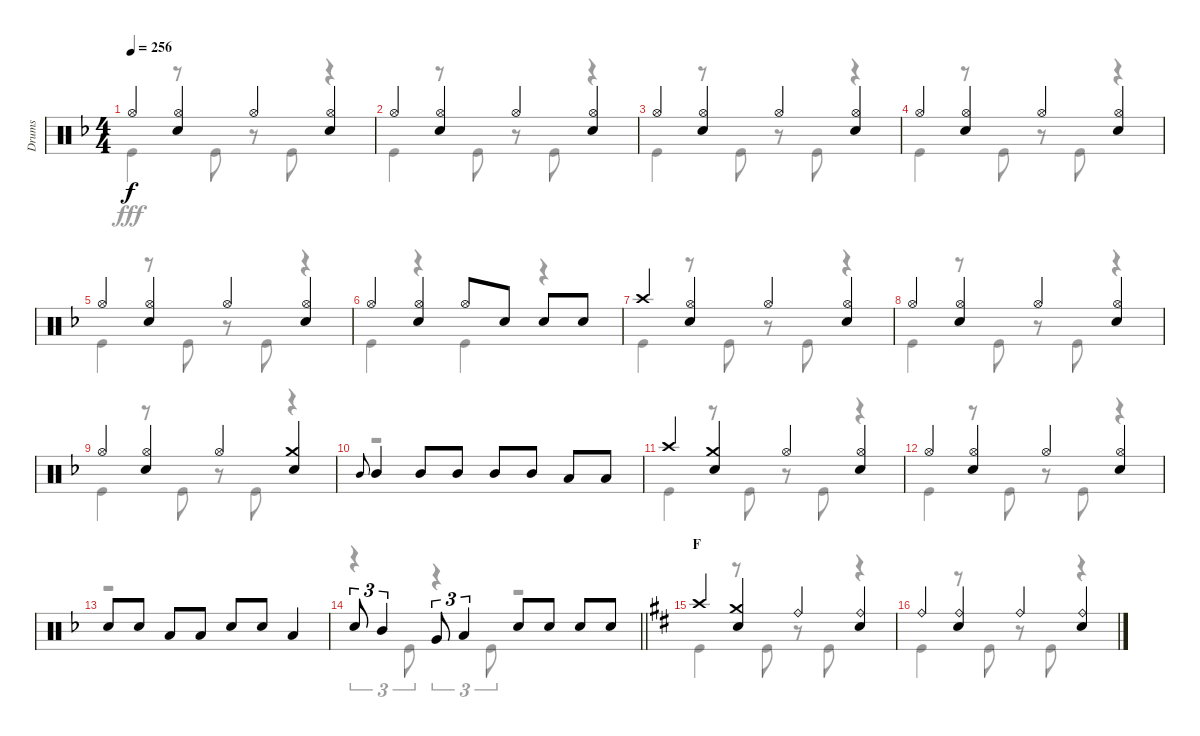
\track ("Drums" "Drums") {instrument percussion}
\staff {score}
\articulation defaults
\voice
\ts (4 4)
\tempo 256
\clef neutral
\ks f "Hi-Hat (open)".4{dy f}
("Hi-Hat (open)" "Snare (hit) 2").4 "Hi-Hat (open)".4 ("Hi-Hat (open)" "Snare (hit) 2").4 |
"Hi-Hat (open)".4 ("Hi-Hat (open)" "Snare (hit) 2").4 "Hi-Hat (open)".4 ("Hi-Hat (open)" "Snare (hit) 2").4 |
"Hi-Hat (open)".4 ("Hi-Hat (open)" "Snare (hit) 2").4 "Hi-Hat (open)".4 ("Hi-Hat (open)" "Snare (hit) 2").4 |
"Hi-Hat (open)".4 ("Hi-Hat (open)" "Snare (hit) 2").4 "Hi-Hat (open)".4 ("Hi-Hat (open)" "Snare (hit) 2").4 |
"Hi-Hat (open)".4 ("Hi-Hat (open)" "Snare (hit) 2").4 "Hi-Hat (open)".4 ("Hi-Hat (open)" "Snare (hit) 2").4 |
"Hi-Hat (open)".4 ("Hi-Hat (open)" "Snare (hit) 2").4 "Hi-Hat (open)".8 "Snare (hit) 2".8 "Snare (hit) 2".8 "Snare (hit) 2".8 |
"Crash high (hit)".4 ("Hi-Hat (open)" "Snare (hit) 2").4 "Hi-Hat (open)".4 ("Hi-Hat (open)" "Snare (hit) 2").4 |
"Hi-Hat (open)".4 ("Hi-Hat (open)" "Snare (hit) 2").4 "Hi-Hat (open)".4 ("Hi-Hat (open)" "Snare (hit) 2").4 |
"Hi-Hat (open)".4 ("Hi-Hat (open)" "Snare (hit) 2").4 "Hi-Hat (open)".4 ("Crash medium (hit)" "Snare (hit) 2").4 |
"Mid Tom (hit)".8{gr onbeat} "Mid Tom (hit)".4 "Mid Tom (hit)".8 "Mid Tom (hit)".8 "Mid Tom (hit)".8 "Mid Tom (hit)".8 "Low Tom (hit)".8 "Low Tom (hit)".8 |
"Crash high (hit)".4 ("Crash medium (hit)" "Snare (hit) 2").4 "Hi-Hat (open)".4 ("Hi-Hat (open)" "Snare (hit) 2").4 |
"Hi-Hat (open)".4 ("Hi-Hat (open)" "Snare (hit) 2").4 "Hi-Hat (open)".4 ("Hi-Hat (open)" "Snare (hit) 2").4 |
"Snare (hit) 2".8 "Snare (hit) 2".8 "Low Tom (hit)".8 "Low Tom (hit)".8 "Snare (hit) 2".8 "Snare (hit) 2".8 "Low Tom (hit)".4 |
\barLineRight lightlight "Snare (hit) 2".8{tu (3 2)} "Mid Tom (hit)".4{tu (3 2)} "Very Low Tom (hit)".8{tu (3 2)} "Low Tom (hit)".4{tu (3 2)} "Snare (hit) 2".8 "Snare (hit) 2".8 "Snare (hit) 2".8 "Snare (hit) 2".8
|
\section ("" "F")
\ks d "Crash high (hit)".4
("Crash medium (hit)" "Snare (hit) 2").4 "Ride (bell)".4 ("Ride (bell)" "Snare (hit) 2").4 |
"Ride (bell)".4 ("Ride (bell)" "Snare (hit) 2").4 "Ride (bell)".4 ("Ride (bell)" "Snare (hit) 2").4
\voice
\clef neutral
\ottava regular
\simile none
\ks f "Kick (hit)".4{dy fff}
r.8 "Kick (hit)".8 r.8 "Kick (hit)".8 r.4 |
"Kick (hit)".4 r.8 "Kick (hit)".8 r.8 "Kick (hit)".8 r.4 |
"Kick (hit)".4 r.8 "Kick (hit)".8 r.8 "Kick (hit)".8 r.4 |
"Kick (hit)".4 r.8 "Kick (hit)".8 r.8 "Kick (hit)".8 r.4 |
"Kick (hit)".4 r.8 "Kick (hit)".8 r.8 "Kick (hit)".8 r.4 |
"Kick (hit)".4 r.4 "Kick (hit)".4 r.4 |
"Kick (hit)".4 r.8 "Kick (hit)".8 r.8 "Kick (hit)".8 r.4 |
"Kick (hit)".4 r.8 "Kick (hit)".8 r.8 "Kick (hit)".8 r.4 |
"Kick (hit)".4 r.8 "Kick (hit)".8 r.8 "Kick (hit)".8 r.4 |
r.1 |
"Kick (hit)".4 r.8 "Kick (hit)".8 r.8 "Kick (hit)".8 r.4 |
"Kick (hit)".4 r.8 "Kick (hit)".8 r.8 "Kick (hit)".8 r.4 |
r.1 |
\barLineRight lightlight
r.4{tu (3 2)} "Kick (hit)".8{tu (3 2)} r.4{tu (3 2)} "Kick (hit)".8{tu (3 2)} r.2 |
\ks d "Kick (hit)".4
r.8 "Kick (hit)".8 r.8 "Kick (hit)".8 r.4 |
"Kick (hit)".4 r.8 "Kick (hit)".8 r.8 "Kick (hit)".8 r.4
